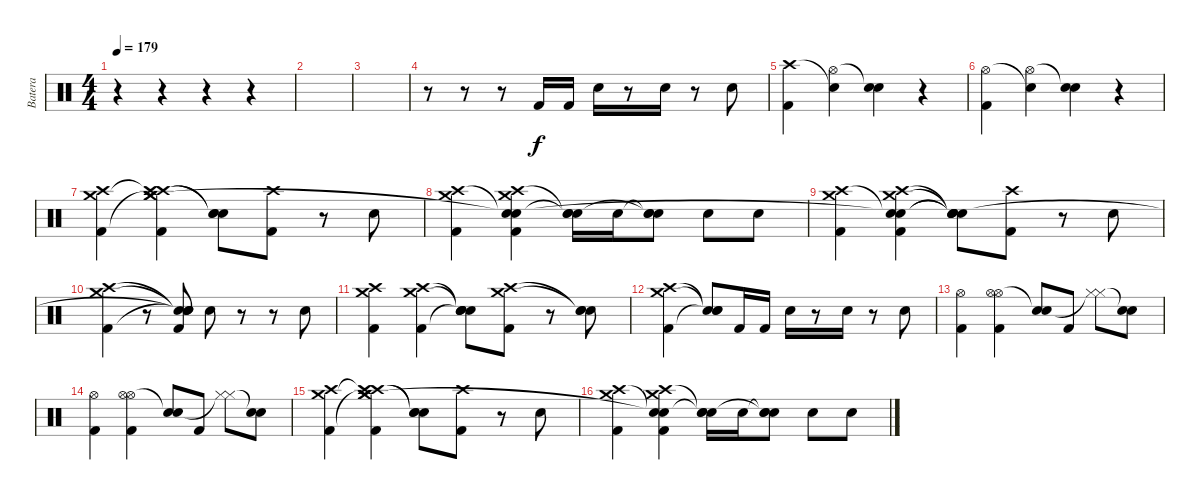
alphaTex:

\track ("Batera" "Batera") {instrument percussion}
\staff {score}
\articulation defaults
\ts (4 4)
\tempo 179
\clef neutral
\ks c
r.4{dy f} r.4 r.4 r.4 |
|
|
r.8 r.8 r.8 "Kick (hit) 2".16 "Kick (hit) 2".16 "Electric Snare (hit)".16 r.8 "Electric Snare (hit)".16 r.8 "Electric Snare (hit)".8 |
("Crash high (hit)" "Kick (hit) 2").4 ("Snare (hit)"{t} "Hi-Hat (open)").4 ("Electric Snare (hit)" "Snare (hit)"{t}).4 r.4 |
("Hi-Hat (open)" "Kick (hit) 2").4 ("Snare (hit)"{t} "Hi-Hat (open)").4 ("Electric Snare (hit)" "Snare (hit)"{t}).4 r.4 |
("Crash high (hit)" "Crash medium (hit)" "Kick (hit) 2").4 ("Crash high (hit)" "Crash high (hit)"{t} "Crash medium (hit)"{t} "Crash medium (hit)" "Kick (hit) 2").4 ("Snare (hit)"{t} "Snare (hit)"{t} "Electric Snare (hit)").8 ("Crash high (hit)" "Kick (hit) 2").8 r.8 "Electric Snare (hit)".8 |
("Crash high (hit)" "Crash medium (hit)" "Kick (hit) 2").4 ("Snare (hit)"{t} "Crash high (hit)" "Crash medium (hit)" "Snare (hit)"{t} "Kick (hit) 2").4 ("Snare (hit)"{t} "Snare (hit)"{t} "Electric Snare (hit)").16 "Electric Snare (hit)".16 ("Snare (hit)"{t} "Snare (hit)"{t} "Electric Snare (hit)").8 "Electric Snare (hit)".8 "Electric Snare (hit)".8 |
("Crash high (hit)" "Crash medium (hit)" "Kick (hit) 2").4 ("Snare (hit)"{t} "Crash high (hit)" "Crash medium (hit)" "Snare (hit)"{t} "Kick (hit) 2").4 ("Snare (hit)"{t} "Snare (hit)"{t} "Snare (hit)"{t} "Snare (hit)"{t} "Electric Snare (hit)").8 ("Crash high (hit)" "Kick (hit) 2").8 r.8 "Electric Snare (hit)".8 |
("Crash medium (hit)" "Crash high (hit)" "Kick (hit) 2").4 r.8 ("Snare (hit)"{t} "Snare (hit)"{t} "Snare (hit)"{t} "Snare (hit)"{t} "Kick (hit) 2").8 "Electric Snare (hit)".8 r.8 r.8 "Electric Snare (hit)".8 |
("Crash medium (hit)" "Crash high (hit)" "Kick (hit) 2").4 ("Crash medium (hit)" "Crash high (hit)" "Kick (hit) 2").4 ("Snare (hit)"{t} "Snare (hit)"{t} "Snare (hit)"{t} "Electric Snare (hit)").8 ("Crash medium (hit)" "Crash high (hit)" "Kick (hit) 2").8 r.8 ("Snare (hit)"{t} "Snare (hit)"{t} "Electric Snare (hit)").8 |
("Crash high (hit)" "Crash medium (hit)" "Kick (hit) 2").4 ("Snare (hit)"{t} "Snare (hit)"{t} "Snare (hit)"{t}).8 "Kick (hit) 2".16 "Kick (hit) 2".16 "Electric Snare (hit)".16 r.8 "Electric Snare (hit)".16 r.8 "Electric Snare (hit)".8 |
("Hi-Hat (open)" "Kick (hit) 2").4 ("Hi-Hat (open)" "Hi-Hat (open)" "Kick (hit) 2").4 ("Electric Snare (hit)" "Snare (hit)"{t}).8 "Kick (hit) 2".8 ("Hi-Hat (closed)" "Hi-Hat (closed)"{t}).8 ("Snare (hit)"{t} "Electric Snare (hit)").8 |
("Hi-Hat (open)" "Kick (hit) 2").4 ("Hi-Hat (open)" "Hi-Hat (open)" "Kick (hit) 2").4 ("Electric Snare (hit)" "Snare (hit)"{t}).8 "Kick (hit) 2".8 ("Hi-Hat (closed)" "Hi-Hat (closed)"{t}).8 ("Snare (hit)"{t} "Electric Snare (hit)").8 |
("Crash high (hit)" "Crash medium (hit)" "Kick (hit) 2").4 ("Crash high (hit)" "Crash high (hit)"{t} "Crash medium (hit)"{t} "Crash medium (hit)" "Kick (hit) 2").4 ("Snare (hit)"{t} "Snare (hit)"{t} "Electric Snare (hit)").8 ("Crash high (hit)" "Kick (hit) 2").8 r.8 "Electric Snare (hit)".8 |
("Crash high (hit)" "Crash medium (hit)" "Kick (hit) 2").4 ("Snare (hit)"{t} "Crash high (hit)" "Crash medium (hit)" "Snare (hit)"{t} "Kick (hit) 2").4 ("Snare (hit)"{t} "Snare (hit)"{t} "Electric Snare (hit)").16 "Electric Snare (hit)".16 ("Snare (hit)"{t} "Snare (hit)"{t} "Electric Snare (hit)").8 "Electric Snare (hit)".8 "Electric Snare (hit)".8
